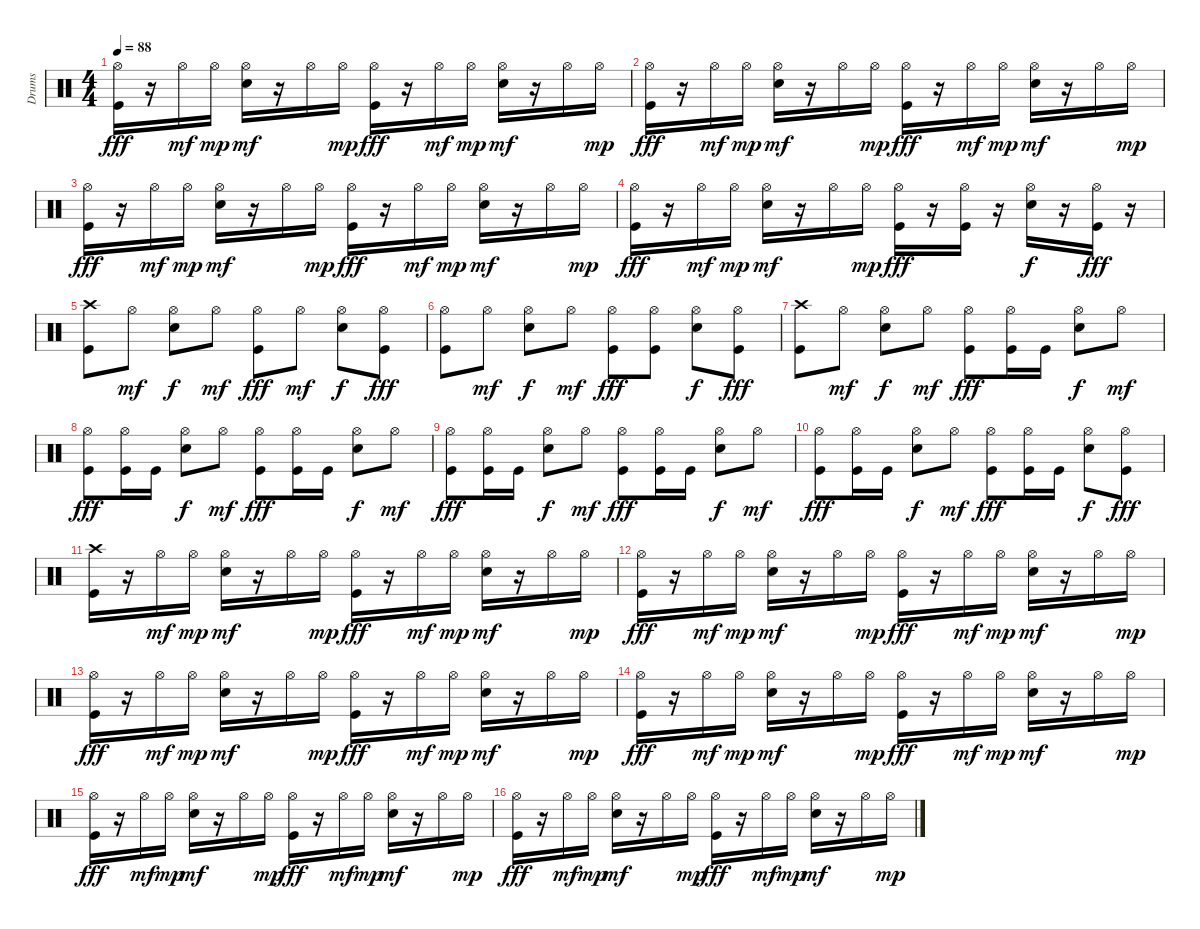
\track ("Drums" "Drums") {instrument percussion}
\staff {score}
\articulation defaults
\ts (4 4)
\tempo 88
\clef neutral
\ks c
("Hi-Hat (open)" "Kick (hit)").16{dy fff} r.16 "Hi-Hat (open)".16{dy mf} "Hi-Hat (open)".16{dy mp} ("Hi-Hat (open)" "Snare (hit) 2").16{dy mf} r.16 "Hi-Hat (open)".16 "Hi-Hat (open)".16{dy mp} ("Hi-Hat (open)" "Kick (hit)").16{dy fff} r.16 "Hi-Hat (open)".16{dy mf} "Hi-Hat (open)".16{dy mp} ("Hi-Hat (open)" "Snare (hit) 2").16{dy mf} r.16 "Hi-Hat (open)".16 "Hi-Hat (open)".16{dy mp} |
("Hi-Hat (open)" "Kick (hit)").16{dy fff} r.16 "Hi-Hat (open)".16{dy mf} "Hi-Hat (open)".16{dy mp} ("Hi-Hat (open)" "Snare (hit) 2").16{dy mf} r.16 "Hi-Hat (open)".16 "Hi-Hat (open)".16{dy mp} ("Hi-Hat (open)" "Kick (hit)").16{dy fff} r.16 "Hi-Hat (open)".16{dy mf} "Hi-Hat (open)".16{dy mp} ("Hi-Hat (open)" "Snare (hit) 2").16{dy mf} r.16 "Hi-Hat (open)".16 "Hi-Hat (open)".16{dy mp} |
("Hi-Hat (open)" "Kick (hit)").16{dy fff} r.16 "Hi-Hat (open)".16{dy mf} "Hi-Hat (open)".16{dy mp} ("Hi-Hat (open)" "Snare (hit) 2").16{dy mf} r.16 "Hi-Hat (open)".16 "Hi-Hat (open)".16{dy mp} ("Hi-Hat (open)" "Kick (hit)").16{dy fff} r.16 "Hi-Hat (open)".16{dy mf} "Hi-Hat (open)".16{dy mp} ("Hi-Hat (open)" "Snare (hit) 2").16{dy mf} r.16 "Hi-Hat (open)".16 "Hi-Hat (open)".16{dy mp} |
("Hi-Hat (open)" "Kick (hit)").16{dy fff} r.16 "Hi-Hat (open)".16{dy mf} "Hi-Hat (open)".16{dy mp} ("Hi-Hat (open)" "Snare (hit) 2").16{dy mf} r.16 "Hi-Hat (open)".16 "Hi-Hat (open)".16{dy mp} ("Hi-Hat (open)" "Kick (hit)").16{dy fff} r.16 ("Hi-Hat (open)" "Kick (hit)").16 r.16 ("Hi-Hat (open)" "Snare (hit) 2").16{dy f} r.16 ("Hi-Hat (open)" "Kick (hit)").16{dy fff} r.16 |
("Crash high (hit)" "Kick (hit)").8 "Hi-Hat (open)".8{dy mf} ("Hi-Hat (open)" "Snare (hit) 2").8{dy f} "Hi-Hat (open)".8{dy mf} ("Hi-Hat (open)" "Kick (hit)").8{dy fff} "Hi-Hat (open)".8{dy mf} ("Hi-Hat (open)" "Snare (hit) 2").8{dy f} ("Hi-Hat (open)" "Kick (hit)").8{dy fff} |
("Hi-Hat (open)" "Kick (hit)").8 "Hi-Hat (open)".8{dy mf} ("Hi-Hat (open)" "Snare (hit) 2").8{dy f} "Hi-Hat (open)".8{dy mf} ("Hi-Hat (open)" "Kick (hit)").8{dy fff} ("Hi-Hat (open)" "Kick (hit)").8 ("Hi-Hat (open)" "Snare (hit) 2").8{dy f} ("Hi-Hat (open)" "Kick (hit)").8{dy fff} |
("Crash high (hit)" "Kick (hit)").8 "Hi-Hat (open)".8{dy mf} ("Hi-Hat (open)" "Snare (hit) 2").8{dy f} "Hi-Hat (open)".8{dy mf} ("Hi-Hat (open)" "Kick (hit)").8{dy fff} ("Hi-Hat (open)" "Kick (hit)").16 "Kick (hit)".16 ("Hi-Hat (open)" "Snare (hit) 2").8{dy f} "Hi-Hat (open)".8{dy mf} |
("Hi-Hat (open)" "Kick (hit)").8{dy fff} ("Hi-Hat (open)" "Kick (hit)").16 "Kick (hit)".16 ("Hi-Hat (open)" "Snare (hit) 2").8{dy f} "Hi-Hat (open)".8{dy mf} ("Hi-Hat (open)" "Kick (hit)").8{dy fff} ("Hi-Hat (open)" "Kick (hit)").16 "Kick (hit)".16 ("Hi-Hat (open)" "Snare (hit) 2").8{dy f} "Hi-Hat (open)".8{dy mf} |
("Hi-Hat (open)" "Kick (hit)").8{dy fff} ("Hi-Hat (open)" "Kick (hit)").16 "Kick (hit)".16 ("Hi-Hat (open)" "Snare (hit) 2").8{dy f} "Hi-Hat (open)".8{dy mf} ("Hi-Hat (open)" "Kick (hit)").8{dy fff} ("Hi-Hat (open)" "Kick (hit)").16 "Kick (hit)".16 ("Hi-Hat (open)" "Snare (hit) 2").8{dy f} "Hi-Hat (open)".8{dy mf} |
("Hi-Hat (open)" "Kick (hit)").8{dy fff} ("Hi-Hat (open)" "Kick (hit)").16 "Kick (hit)".16 ("Hi-Hat (open)" "Snare (hit) 2").8{dy f} "Hi-Hat (open)".8{dy mf} ("Hi-Hat (open)" "Kick (hit)").8{dy fff} ("Hi-Hat (open)" "Kick (hit)").16 "Kick (hit)".16 ("Hi-Hat (open)" "Snare (hit) 2").8{dy f} ("Hi-Hat (open)" "Kick (hit)").8{dy fff} |
("Crash high (hit)" "Kick (hit)").16 r.16 "Hi-Hat (open)".16{dy mf} "Hi-Hat (open)".16{dy mp} ("Hi-Hat (open)" "Snare (hit) 2").16{dy mf} r.16 "Hi-Hat (open)".16 "Hi-Hat (open)".16{dy mp} ("Hi-Hat (open)" "Kick (hit)").16{dy fff} r.16 "Hi-Hat (open)".16{dy mf} "Hi-Hat (open)".16{dy mp} ("Hi-Hat (open)" "Snare (hit) 2").16{dy mf} r.16 "Hi-Hat (open)".16 "Hi-Hat (open)".16{dy mp} |
("Hi-Hat (open)" "Kick (hit)").16{dy fff} r.16 "Hi-Hat (open)".16{dy mf} "Hi-Hat (open)".16{dy mp} ("Hi-Hat (open)" "Snare (hit) 2").16{dy mf} r.16 "Hi-Hat (open)".16 "Hi-Hat (open)".16{dy mp} ("Hi-Hat (open)" "Kick (hit)").16{dy fff} r.16 "Hi-Hat (open)".16{dy mf} "Hi-Hat (open)".16{dy mp} ("Hi-Hat (open)" "Snare (hit) 2").16{dy mf} r.16 "Hi-Hat (open)".16 "Hi-Hat (open)".16{dy mp} |
("Hi-Hat (open)" "Kick (hit)").16{dy fff} r.16 "Hi-Hat (open)".16{dy mf} "Hi-Hat (open)".16{dy mp} ("Hi-Hat (open)" "Snare (hit) 2").16{dy mf} r.16 "Hi-Hat (open)".16 "Hi-Hat (open)".16{dy mp} ("Hi-Hat (open)" "Kick (hit)").16{dy fff} r.16 "Hi-Hat (open)".16{dy mf} "Hi-Hat (open)".16{dy mp} ("Hi-Hat (open)" "Snare (hit) 2").16{dy mf} r.16 "Hi-Hat (open)".16 "Hi-Hat (open)".16{dy mp} |
("Hi-Hat (open)" "Kick (hit)").16{dy fff} r.16 "Hi-Hat (open)".16{dy mf} "Hi-Hat (open)".16{dy mp} ("Hi-Hat (open)" "Snare (hit) 2").16{dy mf} r.16 "Hi-Hat (open)".16 "Hi-Hat (open)".16{dy mp} ("Hi-Hat (open)" "Kick (hit)").16{dy fff} r.16 "Hi-Hat (open)".16{dy mf} "Hi-Hat (open)".16{dy mp} ("Hi-Hat (open)" "Snare (hit) 2").16{dy mf} r.16 "Hi-Hat (open)".16 "Hi-Hat (open)".16{dy mp} |
("Hi-Hat (open)" "Kick (hit)").16{dy fff} r.16 "Hi-Hat (open)".16{dy mf} "Hi-Hat (open)".16{dy mp} ("Hi-Hat (open)" "Snare (hit) 2").16{dy mf} r.16 "Hi-Hat (open)".16 "Hi-Hat (open)".16{dy mp} ("Hi-Hat (open)" "Kick (hit)").16{dy fff} r.16 "Hi-Hat (open)".16{dy mf} "Hi-Hat (open)".16{dy mp} ("Hi-Hat (open)" "Snare (hit) 2").16{dy mf} r.16 "Hi-Hat (open)".16 "Hi-Hat (open)".16{dy mp} |
("Hi-Hat (open)" "Kick (hit)").16{dy fff} r.16 "Hi-Hat (open)".16{dy mf} "Hi-Hat (open)".16{dy mp} ("Hi-Hat (open)" "Snare (hit) 2").16{dy mf} r.16 "Hi-Hat (open)".16 "Hi-Hat (open)".16{dy mp} ("Hi-Hat (open)" "Kick (hit)").16{dy fff} r.16 "Hi-Hat (open)".16{dy mf} "Hi-Hat (open)".16{dy mp} ("Hi-Hat (open)" "Snare (hit) 2").16{dy mf} r.16 "Hi-Hat (open)".16 "Hi-Hat (open)".16{dy mp}
